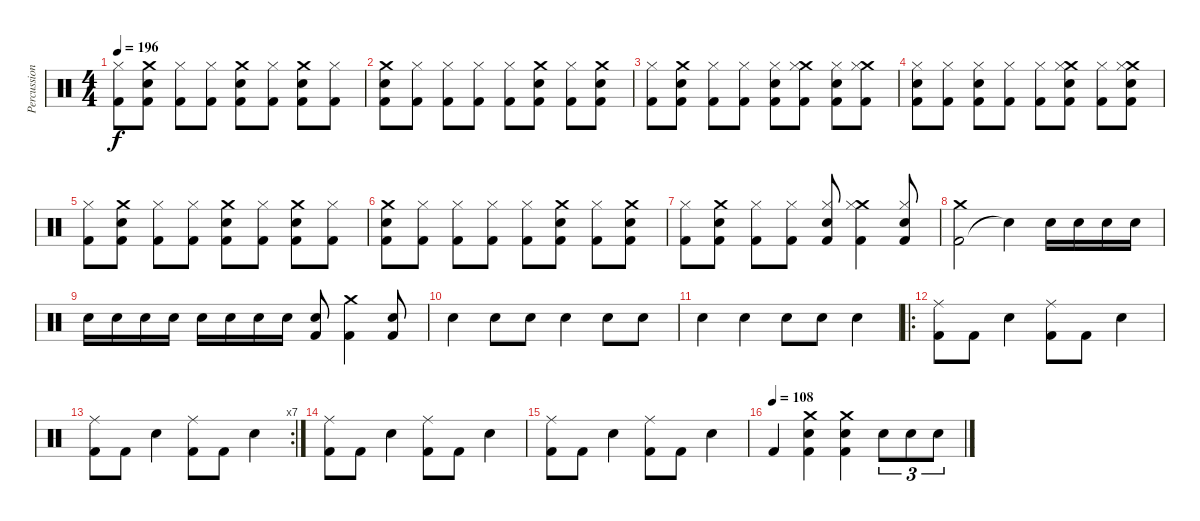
\track ("Percussions" "Percussion") {instrument percussion}
\staff {score}
\articulation defaults
\ts (4 4)
\tempo 196
\clef neutral
\ks c
("Kick (hit) 2" "Hi-Hat (closed)").8{dy f} ("Kick (hit) 2" "Snare (hit) 2" "Crash medium (hit)").8 ("Kick (hit) 2" "Hi-Hat (closed)").8 ("Kick (hit) 2" "Hi-Hat (closed)").8 ("Kick (hit) 2" "Snare (hit) 2" "Crash medium (hit)").8 ("Kick (hit) 2" "Hi-Hat (closed)").8 ("Kick (hit) 2" "Snare (hit) 2" "Crash medium (hit)").8 ("Kick (hit) 2" "Hi-Hat (closed)").8 |
("Kick (hit) 2" "Snare (hit) 2" "Crash medium (hit)").8 ("Kick (hit) 2" "Hi-Hat (closed)").8 ("Kick (hit) 2" "Hi-Hat (closed)").8 ("Kick (hit) 2" "Hi-Hat (closed)").8 ("Kick (hit) 2" "Hi-Hat (closed)").8 ("Kick (hit) 2" "Crash medium (hit)" "Snare (hit) 2").8 ("Kick (hit) 2" "Hi-Hat (closed)").8 ("Kick (hit) 2" "Crash medium (hit)" "Snare (hit) 2").8 |
("Kick (hit) 2" "Hi-Hat (closed)").8 ("Kick (hit) 2" "Snare (hit) 2" "Crash medium (hit)").8 ("Kick (hit) 2" "Hi-Hat (closed)").8 ("Kick (hit) 2" "Hi-Hat (closed)").8 ("Kick (hit) 2" "Snare (hit) 2" "Hi-Hat (closed)").8 ("Kick (hit) 2" "Crash medium (hit)" "Hi-Hat (closed)").8 ("Kick (hit) 2" "Snare (hit) 2" "Hi-Hat (closed)").8 ("Kick (hit) 2" "Crash medium (hit)" "Hi-Hat (closed)").8 |
("Kick (hit) 2" "Snare (hit) 2" "Hi-Hat (closed)").8 ("Kick (hit) 2" "Hi-Hat (closed)").8 ("Kick (hit) 2" "Snare (hit) 2" "Hi-Hat (closed)").8 ("Kick (hit) 2" "Hi-Hat (closed)").8 ("Kick (hit) 2" "Hi-Hat (closed)").8 ("Kick (hit) 2" "Snare (hit) 2" "Crash medium (hit)" "Hi-Hat (closed)").8 ("Kick (hit) 2" "Hi-Hat (closed)").8 ("Kick (hit) 2" "Snare (hit) 2" "Crash medium (hit)" "Hi-Hat (closed)").8 |
("Kick (hit) 2" "Hi-Hat (closed)").8 ("Kick (hit) 2" "Snare (hit) 2" "Crash medium (hit)").8 ("Kick (hit) 2" "Hi-Hat (closed)").8 ("Kick (hit) 2" "Hi-Hat (closed)").8 ("Kick (hit) 2" "Snare (hit) 2" "Crash medium (hit)").8 ("Kick (hit) 2" "Hi-Hat (closed)").8 ("Kick (hit) 2" "Snare (hit) 2" "Crash medium (hit)").8 ("Kick (hit) 2" "Hi-Hat (closed)").8 |
("Kick (hit) 2" "Snare (hit) 2" "Crash medium (hit)").8 ("Kick (hit) 2" "Hi-Hat (closed)").8 ("Kick (hit) 2" "Hi-Hat (closed)").8 ("Kick (hit) 2" "Hi-Hat (closed)").8 ("Kick (hit) 2" "Hi-Hat (closed)").8 ("Kick (hit) 2" "Crash medium (hit)" "Snare (hit) 2").8 ("Kick (hit) 2" "Hi-Hat (closed)").8 ("Kick (hit) 2" "Crash medium (hit)" "Snare (hit) 2").8 |
("Kick (hit) 2" "Hi-Hat (closed)").8 ("Kick (hit) 2" "Snare (hit) 2" "Crash medium (hit)").8 ("Kick (hit) 2" "Hi-Hat (closed)").8 ("Kick (hit) 2" "Hi-Hat (closed)").8 ("Kick (hit) 2" "Snare (hit) 2" "Hi-Hat (closed)").8 ("Kick (hit) 2" "Crash medium (hit)" "Hi-Hat (closed)").4 ("Kick (hit) 2" "Snare (hit) 2" "Hi-Hat (closed)").8 |
("Kick (hit) 2" "Crash medium (hit)").2 "Snare (hit)"{t}.4 "Snare (hit) 2".16 "Snare (hit) 2".16 "Snare (hit) 2".16 "Snare (hit) 2".16 |
"Snare (hit) 2".16 "Snare (hit) 2".16 "Snare (hit) 2".16 "Snare (hit) 2".16 "Snare (hit) 2".16 "Snare (hit) 2".16 "Snare (hit) 2".16 "Snare (hit) 2".16 ("Kick (hit) 2" "Snare (hit) 2").8 ("Kick (hit) 2" "Crash medium (hit)").4 ("Kick (hit) 2" "Snare (hit) 2").8 |
"Snare (hit) 2".4 "Snare (hit) 2".8 "Snare (hit) 2".8 "Snare (hit) 2".4 "Snare (hit) 2".8 "Snare (hit) 2".8 |
"Snare (hit) 2".4 "Snare (hit) 2".4 "Snare (hit) 2".8 "Snare (hit) 2".8 "Snare (hit) 2".4 |
\ro
("Kick (hit) 2" "Ride (middle)").8 "Kick (hit) 2".8 "Snare (hit) 2".4 ("Kick (hit) 2" "Ride (middle)").8 "Kick (hit) 2".8 "Snare (hit) 2".4 |
\rc 7
("Kick (hit) 2" "Ride (middle)").8 "Kick (hit) 2".8 "Snare (hit) 2".4 ("Kick (hit) 2" "Ride (middle)").8 "Kick (hit) 2".8 "Snare (hit) 2".4 |
("Kick (hit) 2" "Ride (middle)").8 "Kick (hit) 2".8 "Snare (hit) 2".4 ("Kick (hit) 2" "Ride (middle)").8 "Kick (hit) 2".8 "Snare (hit) 2".4 |
("Kick (hit) 2" "Ride (middle)").8 "Kick (hit) 2".8 "Snare (hit) 2".4 ("Kick (hit) 2" "Ride (middle)").8 "Kick (hit) 2".8 "Snare (hit) 2".4 |
\tempo (108)
"Kick (hit) 2".4 ("Kick (hit) 2" "Snare (hit) 2" "Crash medium (hit)").4 ("Kick (hit) 2" "Snare (hit) 2" "Crash medium (hit)").4 "Snare (hit) 2".8{tu (3 2)} "Snare (hit) 2".8{tu (3 2)} "Snare (hit) 2".8{tu (3 2)}
